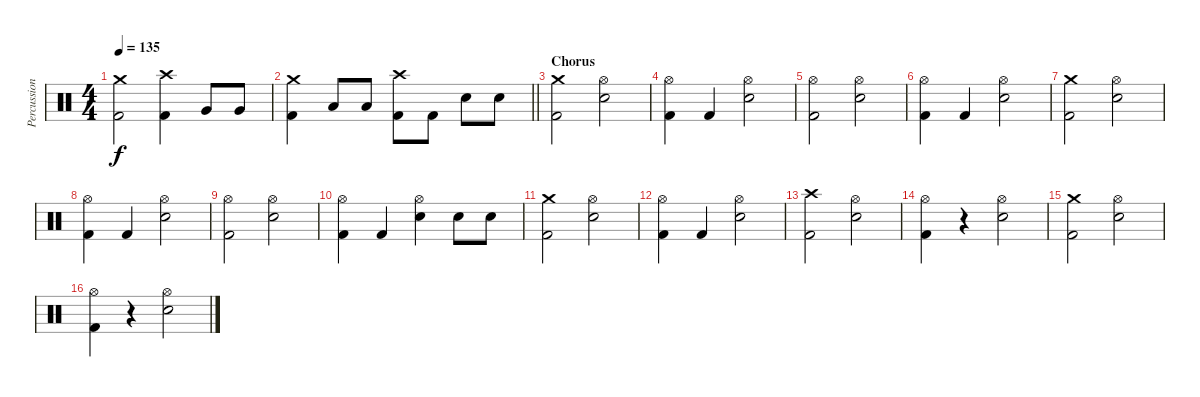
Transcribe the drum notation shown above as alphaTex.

\track ("Percussion" "Percussion") {instrument percussion}
\staff {score}
\articulation defaults
\ts (4 4)
\tempo 135
\clef neutral
\ks c
("Crash medium (hit)" "Kick (hit) 2").2{dy f} ("Crash high (hit)" "Kick (hit) 2").4 "Very Low Tom (hit)".8 "Very Low Tom (hit)".8 |
\barLineRight lightlight
("Crash medium (hit)" "Kick (hit) 2").4 "Low Tom (hit)".8 "Low Tom (hit)".8 ("Crash high (hit)" "Kick (hit) 2").8 "Kick (hit) 2".8 "Electric Snare (hit)".8 "Electric Snare (hit)".8 |
\section ("" "Chorus")
("Crash medium (hit)" "Kick (hit) 2").2 ("Hi-Hat (open)" "Electric Snare (hit)").2 |
("Hi-Hat (open)" "Kick (hit) 2").4 "Kick (hit) 2".4 ("Hi-Hat (open)" "Electric Snare (hit)").2 |
("Hi-Hat (open)" "Kick (hit) 2").2 ("Hi-Hat (open)" "Electric Snare (hit)").2 |
("Hi-Hat (open)" "Kick (hit) 2").4 "Kick (hit) 2".4 ("Hi-Hat (open)" "Electric Snare (hit)").2 |
("Crash medium (hit)" "Kick (hit) 2").2 ("Hi-Hat (open)" "Electric Snare (hit)").2 |
("Hi-Hat (open)" "Kick (hit) 2").4 "Kick (hit) 2".4 ("Hi-Hat (open)" "Electric Snare (hit)").2 |
("Hi-Hat (open)" "Kick (hit) 2").2 ("Hi-Hat (open)" "Electric Snare (hit)").2 |
("Hi-Hat (open)" "Kick (hit) 2").4 "Kick (hit) 2".4 ("Hi-Hat (open)" "Electric Snare (hit)").4 "Electric Snare (hit)".8 "Electric Snare (hit)".8 |
("Crash medium (hit)" "Kick (hit) 2").2 ("Hi-Hat (open)" "Electric Snare (hit)").2 |
("Hi-Hat (open)" "Kick (hit) 2").4 "Kick (hit) 2".4 ("Hi-Hat (open)" "Electric Snare (hit)").2 |
("Crash high (hit)" "Kick (hit) 2").2 ("Hi-Hat (open)" "Electric Snare (hit)").2 |
("Hi-Hat (open)" "Kick (hit) 2").4 r.4 ("Hi-Hat (open)" "Electric Snare (hit)").2 |
("Crash medium (hit)" "Kick (hit) 2").2 ("Hi-Hat (open)" "Electric Snare (hit)").2 |
("Hi-Hat (open)" "Kick (hit) 2").4 r.4 ("Hi-Hat (open)" "Electric Snare (hit)").2
